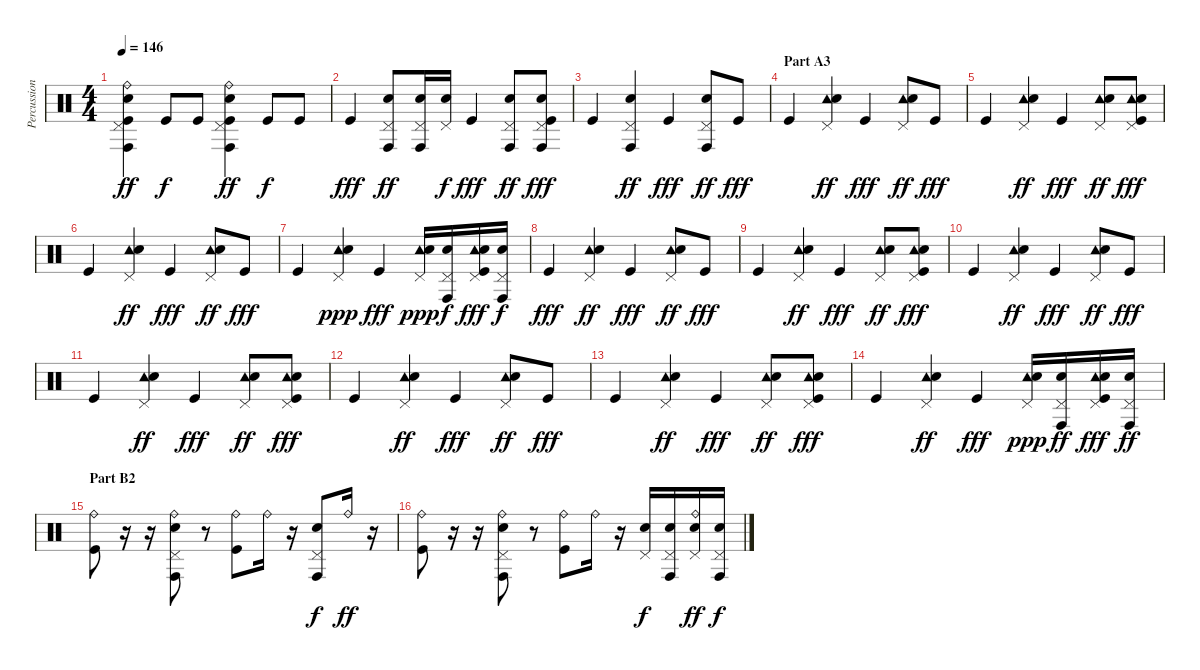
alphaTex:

\track ("Percussion" "Percussion") {instrument percussion}
\staff {score}
\articulation defaults
\ts (4 4)
\tempo 146
\clef neutral
\ks c
("Ride (bell)" "Pedal Hi-Hat (hit)" "Conga high (hit)" "Electric Snare (hit)" "Kick (hit)").4{dy ff} "Kick (hit)".8{dy f} "Kick (hit)".8 ("Ride (bell)" "Pedal Hi-Hat (hit)" "Conga high (hit)" "Electric Snare (hit)" "Kick (hit)").4{dy ff} "Kick (hit)".8{dy f} "Kick (hit)".8 |
"Kick (hit)".4{dy fff} ("Pedal Hi-Hat (hit)" "Conga high (hit)" "Electric Snare (hit)").8{dy ff} ("Pedal Hi-Hat (hit)" "Conga high (hit)" "Electric Snare (hit)").16 ("Pedal Hi-Hat (hit)" "Electric Snare (hit)").16{dy f} "Kick (hit)".4{dy fff} ("Pedal Hi-Hat (hit)" "Conga high (hit)" "Electric Snare (hit)").8{dy ff} ("Pedal Hi-Hat (hit)" "Conga high (hit)" "Electric Snare (hit)" "Kick (hit)").8{dy fff} |
"Kick (hit)".4 ("Pedal Hi-Hat (hit)" "Conga high (hit)" "Electric Snare (hit)").4{dy ff} "Kick (hit)".4{dy fff} ("Pedal Hi-Hat (hit)" "Conga high (hit)" "Electric Snare (hit)").8{dy ff} "Kick (hit)".8{dy fff} |
\section ("" "Part A3")
"Kick (hit)".4 ("Pedal Hi-Hat (hit)" "Tambourine (hit)" "Electric Snare (hit)").4{dy ff} "Kick (hit)".4{dy fff} ("Pedal Hi-Hat (hit)" "Tambourine (hit)" "Electric Snare (hit)").8{dy ff} "Kick (hit)".8{dy fff} |
"Kick (hit)".4 ("Pedal Hi-Hat (hit)" "Tambourine (hit)" "Electric Snare (hit)").4{dy ff} "Kick (hit)".4{dy fff} ("Pedal Hi-Hat (hit)" "Tambourine (hit)" "Electric Snare (hit)").8{dy ff} ("Pedal Hi-Hat (hit)" "Tambourine (hit)" "Electric Snare (hit)" "Kick (hit)").8{dy fff} |
"Kick (hit)".4 ("Pedal Hi-Hat (hit)" "Tambourine (hit)" "Electric Snare (hit)").4{dy ff} "Kick (hit)".4{dy fff} ("Pedal Hi-Hat (hit)" "Tambourine (hit)" "Electric Snare (hit)").8{dy ff} "Kick (hit)".8{dy fff} |
"Kick (hit)".4 ("Pedal Hi-Hat (hit)" "Tambourine (hit)" "Electric Snare (hit)").4{dy ppp} "Kick (hit)".4{dy fff} ("Pedal Hi-Hat (hit)" "Tambourine (hit)" "Electric Snare (hit)").16{dy ppp} ("Pedal Hi-Hat (hit)" "Conga high (hit)" "Electric Snare (hit)").16{dy f} ("Pedal Hi-Hat (hit)" "Tambourine (hit)" "Electric Snare (hit)" "Kick (hit)").16{dy fff} ("Pedal Hi-Hat (hit)" "Conga high (hit)" "Electric Snare (hit)").16{dy f} |
"Kick (hit)".4{dy fff} ("Pedal Hi-Hat (hit)" "Tambourine (hit)" "Electric Snare (hit)").4{dy ff} "Kick (hit)".4{dy fff} ("Pedal Hi-Hat (hit)" "Tambourine (hit)" "Electric Snare (hit)").8{dy ff} "Kick (hit)".8{dy fff} |
"Kick (hit)".4 ("Pedal Hi-Hat (hit)" "Tambourine (hit)" "Electric Snare (hit)").4{dy ff} "Kick (hit)".4{dy fff} ("Pedal Hi-Hat (hit)" "Tambourine (hit)" "Electric Snare (hit)").8{dy ff} ("Pedal Hi-Hat (hit)" "Tambourine (hit)" "Electric Snare (hit)" "Kick (hit)").8{dy fff} |
"Kick (hit)".4 ("Pedal Hi-Hat (hit)" "Tambourine (hit)" "Electric Snare (hit)").4{dy ff} "Kick (hit)".4{dy fff} ("Pedal Hi-Hat (hit)" "Tambourine (hit)" "Electric Snare (hit)").8{dy ff} "Kick (hit)".8{dy fff} |
"Kick (hit)".4 ("Pedal Hi-Hat (hit)" "Tambourine (hit)" "Electric Snare (hit)").4{dy ff} "Kick (hit)".4{dy fff} ("Pedal Hi-Hat (hit)" "Tambourine (hit)" "Electric Snare (hit)").8{dy ff} ("Pedal Hi-Hat (hit)" "Tambourine (hit)" "Electric Snare (hit)" "Kick (hit)").8{dy fff} |
"Kick (hit)".4 ("Pedal Hi-Hat (hit)" "Tambourine (hit)" "Electric Snare (hit)").4{dy ff} "Kick (hit)".4{dy fff} ("Pedal Hi-Hat (hit)" "Tambourine (hit)" "Electric Snare (hit)").8{dy ff} "Kick (hit)".8{dy fff} |
"Kick (hit)".4 ("Pedal Hi-Hat (hit)" "Tambourine (hit)" "Electric Snare (hit)").4{dy ff} "Kick (hit)".4{dy fff} ("Pedal Hi-Hat (hit)" "Tambourine (hit)" "Electric Snare (hit)").8{dy ff} ("Pedal Hi-Hat (hit)" "Tambourine (hit)" "Electric Snare (hit)" "Kick (hit)").8{dy fff} |
"Kick (hit)".4 ("Pedal Hi-Hat (hit)" "Tambourine (hit)" "Electric Snare (hit)").4{dy ff} "Kick (hit)".4{dy fff} ("Pedal Hi-Hat (hit)" "Tambourine (hit)" "Electric Snare (hit)").16{dy ppp} ("Pedal Hi-Hat (hit)" "Conga high (hit)" "Electric Snare (hit)").16{dy ff} ("Pedal Hi-Hat (hit)" "Tambourine (hit)" "Electric Snare (hit)" "Kick (hit)").16{dy fff} ("Pedal Hi-Hat (hit)" "Conga high (hit)" "Electric Snare (hit)").16{dy ff} |
\section ("" "Part B2")
("Ride (bell)" "Kick (hit)").8 r.16 r.16 ("Ride (bell)" "Pedal Hi-Hat (hit)" "Conga high (hit)" "Electric Snare (hit)").8 r.8 ("Ride (bell)" "Kick (hit)").8 "Ride (bell)".16 r.16 ("Pedal Hi-Hat (hit)" "Conga high (hit)" "Electric Snare (hit)").8{dy f} "Ride (bell)".16{dy ff} r.16 |
("Ride (bell)" "Kick (hit)").8 r.16 r.16 ("Ride (bell)" "Pedal Hi-Hat (hit)" "Conga high (hit)" "Electric Snare (hit)").8 r.8 ("Ride (bell)" "Kick (hit)").8 "Ride (bell)".16 r.16 ("Pedal Hi-Hat (hit)" "Electric Snare (hit)").16{dy f} ("Pedal Hi-Hat (hit)" "Conga high (hit)" "Electric Snare (hit)").16 ("Ride (bell)" "Pedal Hi-Hat (hit)" "Electric Snare (hit)").16{dy ff} ("Pedal Hi-Hat (hit)" "Conga high (hit)" "Electric Snare (hit)").16{dy f}
